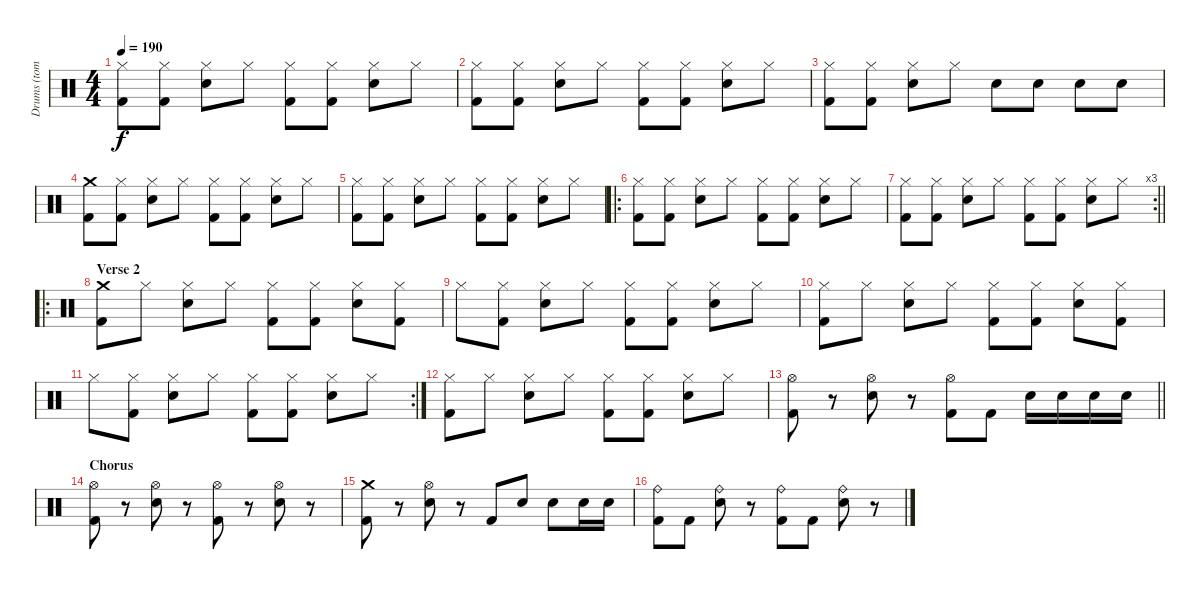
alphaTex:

\track ("Drums (tom)" "Drums (tom") {instrument percussion}
\staff {score}
\articulation defaults
\ts (4 4)
\tempo 190
\clef neutral
\ks c
("Hi-Hat (closed)" "Kick (hit) 2").8{dy f} ("Hi-Hat (closed)" "Kick (hit) 2").8 ("Hi-Hat (closed)" "Electric Snare (hit)").8 "Hi-Hat (closed)".8 ("Hi-Hat (closed)" "Kick (hit) 2").8 ("Hi-Hat (closed)" "Kick (hit) 2").8 ("Hi-Hat (closed)" "Electric Snare (hit)").8 "Hi-Hat (closed)".8 |
("Hi-Hat (closed)" "Kick (hit) 2").8 ("Hi-Hat (closed)" "Kick (hit) 2").8 ("Hi-Hat (closed)" "Electric Snare (hit)").8 "Hi-Hat (closed)".8 ("Hi-Hat (closed)" "Kick (hit) 2").8 ("Hi-Hat (closed)" "Kick (hit) 2").8 ("Hi-Hat (closed)" "Electric Snare (hit)").8 "Hi-Hat (closed)".8 |
("Hi-Hat (closed)" "Kick (hit) 2").8 ("Hi-Hat (closed)" "Kick (hit) 2").8 ("Hi-Hat (closed)" "Electric Snare (hit)").8 "Hi-Hat (closed)".8 "Electric Snare (hit)".8 "Electric Snare (hit)".8 "Electric Snare (hit)".8 "Electric Snare (hit)".8 |
("Crash medium (hit)" "Kick (hit) 2").8 ("Hi-Hat (closed)" "Kick (hit) 2").8 ("Hi-Hat (closed)" "Electric Snare (hit)").8 "Hi-Hat (closed)".8 ("Hi-Hat (closed)" "Kick (hit) 2").8 ("Hi-Hat (closed)" "Kick (hit) 2").8 ("Hi-Hat (closed)" "Electric Snare (hit)").8 "Hi-Hat (closed)".8 |
("Hi-Hat (closed)" "Kick (hit) 2").8 ("Hi-Hat (closed)" "Kick (hit) 2").8 ("Hi-Hat (closed)" "Electric Snare (hit)").8 "Hi-Hat (closed)".8 ("Hi-Hat (closed)" "Kick (hit) 2").8 ("Hi-Hat (closed)" "Kick (hit) 2").8 ("Hi-Hat (closed)" "Electric Snare (hit)").8 "Hi-Hat (closed)".8 |
\ro
("Hi-Hat (closed)" "Kick (hit) 2").8 ("Hi-Hat (closed)" "Kick (hit) 2").8 ("Hi-Hat (closed)" "Electric Snare (hit)").8 "Hi-Hat (closed)".8 ("Hi-Hat (closed)" "Kick (hit) 2").8 ("Hi-Hat (closed)" "Kick (hit) 2").8 ("Hi-Hat (closed)" "Electric Snare (hit)").8 "Hi-Hat (closed)".8 |
\rc 3
\barLineRight lightlight
("Hi-Hat (closed)" "Kick (hit) 2").8 ("Hi-Hat (closed)" "Kick (hit) 2").8 ("Hi-Hat (closed)" "Electric Snare (hit)").8 "Hi-Hat (closed)".8 ("Hi-Hat (closed)" "Kick (hit) 2").8 ("Hi-Hat (closed)" "Kick (hit) 2").8 ("Hi-Hat (closed)" "Electric Snare (hit)").8 "Hi-Hat (closed)".8 |
\ro
\section ("" "Verse 2")
("Crash medium (hit)" "Kick (hit) 2").8 "Hi-Hat (closed)".8 ("Hi-Hat (closed)" "Electric Snare (hit)").8 "Hi-Hat (closed)".8 ("Hi-Hat (closed)" "Kick (hit) 2").8 ("Hi-Hat (closed)" "Kick (hit) 2").8 ("Hi-Hat (closed)" "Electric Snare (hit)").8 ("Hi-Hat (closed)" "Kick (hit) 2").8 |
"Hi-Hat (closed)".8 ("Hi-Hat (closed)" "Kick (hit) 2").8 ("Hi-Hat (closed)" "Electric Snare (hit)").8 "Hi-Hat (closed)".8 ("Hi-Hat (closed)" "Kick (hit) 2").8 ("Hi-Hat (closed)" "Kick (hit) 2").8 ("Hi-Hat (closed)" "Electric Snare (hit)").8 "Hi-Hat (closed)".8 |
("Hi-Hat (closed)" "Kick (hit) 2").8 "Hi-Hat (closed)".8 ("Hi-Hat (closed)" "Electric Snare (hit)").8 "Hi-Hat (closed)".8 ("Hi-Hat (closed)" "Kick (hit) 2").8 ("Hi-Hat (closed)" "Kick (hit) 2").8 ("Hi-Hat (closed)" "Electric Snare (hit)").8 ("Hi-Hat (closed)" "Kick (hit) 2").8 |
\rc 2 "Hi-Hat (closed)".8
("Hi-Hat (closed)" "Kick (hit) 2").8 ("Hi-Hat (closed)" "Electric Snare (hit)").8 "Hi-Hat (closed)".8 ("Hi-Hat (closed)" "Kick (hit) 2").8 ("Hi-Hat (closed)" "Kick (hit) 2").8 ("Hi-Hat (closed)" "Electric Snare (hit)").8 "Hi-Hat (closed)".8 |
("Hi-Hat (closed)" "Kick (hit) 2").8 "Hi-Hat (closed)".8 ("Hi-Hat (closed)" "Electric Snare (hit)").8 "Hi-Hat (closed)".8 ("Hi-Hat (closed)" "Kick (hit) 2").8 ("Hi-Hat (closed)" "Kick (hit) 2").8 ("Hi-Hat (closed)" "Electric Snare (hit)").8 "Hi-Hat (closed)".8 |
\barLineRight lightlight
("Hi-Hat (open)" "Kick (hit) 2").8 r.8 ("Hi-Hat (open)" "Electric Snare (hit)").8 r.8 ("Hi-Hat (open)" "Kick (hit) 2").8 "Kick (hit) 2".8 "Electric Snare (hit)".16 "Electric Snare (hit)".16 "Electric Snare (hit)".16 "Electric Snare (hit)".16 |
\section ("" "Chorus")
("Hi-Hat (open)" "Kick (hit) 2").8 r.8 ("Hi-Hat (open)" "Electric Snare (hit)").8 r.8 ("Hi-Hat (open)" "Kick (hit) 2").8 r.8 ("Hi-Hat (open)" "Electric Snare (hit)").8 r.8 |
("Crash medium (hit)" "Kick (hit) 2").8 r.8 ("Hi-Hat (open)" "Electric Snare (hit)").8 r.8 "Kick (hit) 2".8 "Electric Snare (hit)".8 "Electric Snare (hit)".8 "Electric Snare (hit)".16 "Electric Snare (hit)".16 |
("Ride (bell)" "Kick (hit) 2").8 "Kick (hit) 2".8 ("Ride (bell)" "Electric Snare (hit)").8 r.8 ("Ride (bell)" "Kick (hit) 2").8 "Kick (hit) 2".8 ("Ride (bell)" "Electric Snare (hit)").8 r.8
